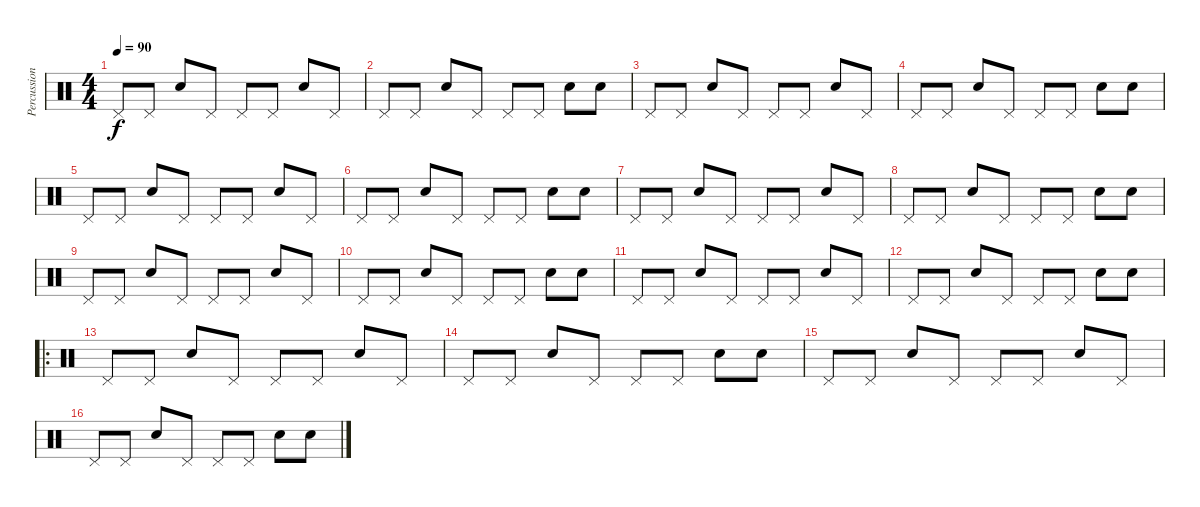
\track ("Percussions" "Percussion") {instrument percussion}
\staff {score}
\articulation defaults
\ts (4 4)
\tempo 90
\clef neutral
\ks c "Pedal Hi-Hat (hit)".8{dy f} "Pedal Hi-Hat (hit)".8 "Electric Snare (hit)".8 "Pedal Hi-Hat (hit)".8 "Pedal Hi-Hat (hit)".8 "Pedal Hi-Hat (hit)".8 "Electric Snare (hit)".8 "Pedal Hi-Hat (hit)".8
|
"Pedal Hi-Hat (hit)".8 "Pedal Hi-Hat (hit)".8 "Electric Snare (hit)".8 "Pedal Hi-Hat (hit)".8 "Pedal Hi-Hat (hit)".8 "Pedal Hi-Hat (hit)".8 "Electric Snare (hit)".8 "Electric Snare (hit)".8 |
"Pedal Hi-Hat (hit)".8 "Pedal Hi-Hat (hit)".8 "Electric Snare (hit)".8 "Pedal Hi-Hat (hit)".8 "Pedal Hi-Hat (hit)".8 "Pedal Hi-Hat (hit)".8 "Electric Snare (hit)".8 "Pedal Hi-Hat (hit)".8 |
"Pedal Hi-Hat (hit)".8 "Pedal Hi-Hat (hit)".8 "Electric Snare (hit)".8 "Pedal Hi-Hat (hit)".8 "Pedal Hi-Hat (hit)".8 "Pedal Hi-Hat (hit)".8 "Electric Snare (hit)".8 "Electric Snare (hit)".8 |
"Pedal Hi-Hat (hit)".8 "Pedal Hi-Hat (hit)".8 "Electric Snare (hit)".8 "Pedal Hi-Hat (hit)".8 "Pedal Hi-Hat (hit)".8 "Pedal Hi-Hat (hit)".8 "Electric Snare (hit)".8 "Pedal Hi-Hat (hit)".8 |
"Pedal Hi-Hat (hit)".8 "Pedal Hi-Hat (hit)".8 "Electric Snare (hit)".8 "Pedal Hi-Hat (hit)".8 "Pedal Hi-Hat (hit)".8 "Pedal Hi-Hat (hit)".8 "Electric Snare (hit)".8 "Electric Snare (hit)".8 |
"Pedal Hi-Hat (hit)".8 "Pedal Hi-Hat (hit)".8 "Electric Snare (hit)".8 "Pedal Hi-Hat (hit)".8 "Pedal Hi-Hat (hit)".8 "Pedal Hi-Hat (hit)".8 "Electric Snare (hit)".8 "Pedal Hi-Hat (hit)".8 |
"Pedal Hi-Hat (hit)".8 "Pedal Hi-Hat (hit)".8 "Electric Snare (hit)".8 "Pedal Hi-Hat (hit)".8 "Pedal Hi-Hat (hit)".8 "Pedal Hi-Hat (hit)".8 "Electric Snare (hit)".8 "Electric Snare (hit)".8 |
"Pedal Hi-Hat (hit)".8 "Pedal Hi-Hat (hit)".8 "Electric Snare (hit)".8 "Pedal Hi-Hat (hit)".8 "Pedal Hi-Hat (hit)".8 "Pedal Hi-Hat (hit)".8 "Electric Snare (hit)".8 "Pedal Hi-Hat (hit)".8 |
"Pedal Hi-Hat (hit)".8 "Pedal Hi-Hat (hit)".8 "Electric Snare (hit)".8 "Pedal Hi-Hat (hit)".8 "Pedal Hi-Hat (hit)".8 "Pedal Hi-Hat (hit)".8 "Electric Snare (hit)".8 "Electric Snare (hit)".8 |
"Pedal Hi-Hat (hit)".8 "Pedal Hi-Hat (hit)".8 "Electric Snare (hit)".8 "Pedal Hi-Hat (hit)".8 "Pedal Hi-Hat (hit)".8 "Pedal Hi-Hat (hit)".8 "Electric Snare (hit)".8 "Pedal Hi-Hat (hit)".8 |
"Pedal Hi-Hat (hit)".8 "Pedal Hi-Hat (hit)".8 "Electric Snare (hit)".8 "Pedal Hi-Hat (hit)".8 "Pedal Hi-Hat (hit)".8 "Pedal Hi-Hat (hit)".8 "Electric Snare (hit)".8 "Electric Snare (hit)".8 |
\ro "Pedal Hi-Hat (hit)".8 "Pedal Hi-Hat (hit)".8 "Electric Snare (hit)".8 "Pedal Hi-Hat (hit)".8 "Pedal Hi-Hat (hit)".8 "Pedal Hi-Hat (hit)".8 "Electric Snare (hit)".8 "Pedal Hi-Hat (hit)".8
|
"Pedal Hi-Hat (hit)".8 "Pedal Hi-Hat (hit)".8 "Electric Snare (hit)".8 "Pedal Hi-Hat (hit)".8 "Pedal Hi-Hat (hit)".8 "Pedal Hi-Hat (hit)".8 "Electric Snare (hit)".8 "Electric Snare (hit)".8 |
"Pedal Hi-Hat (hit)".8 "Pedal Hi-Hat (hit)".8 "Electric Snare (hit)".8 "Pedal Hi-Hat (hit)".8 "Pedal Hi-Hat (hit)".8 "Pedal Hi-Hat (hit)".8 "Electric Snare (hit)".8 "Pedal Hi-Hat (hit)".8 |
"Pedal Hi-Hat (hit)".8 "Pedal Hi-Hat (hit)".8 "Electric Snare (hit)".8 "Pedal Hi-Hat (hit)".8 "Pedal Hi-Hat (hit)".8 "Pedal Hi-Hat (hit)".8 "Electric Snare (hit)".8 "Electric Snare (hit)".8
